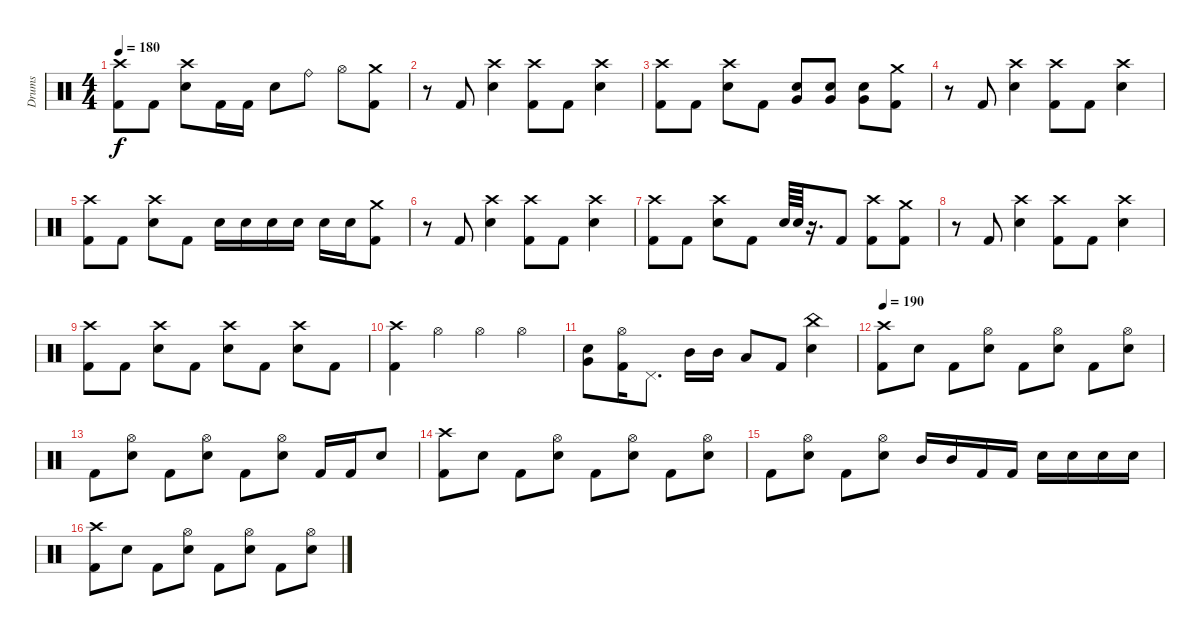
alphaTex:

\track ("Drums" "Drums") {instrument percussion}
\staff {score}
\articulation defaults
\ts (4 4)
\tempo 180
\clef neutral
\ks c
("Crash high (hit)" "Kick (hit) 2").8{dy f} "Kick (hit) 2".8 ("Crash high (hit)" "Electric Snare (hit)").8 "Kick (hit) 2".16 "Kick (hit) 2".16 "Electric Snare (hit)".8 "Ride (bell)".8 "Hi-Hat (open)".8 ("Crash medium (hit)" "Kick (hit) 2").8 |
r.8 "Kick (hit) 2".8 ("Crash high (hit)" "Electric Snare (hit)").4 ("Crash high (hit)" "Kick (hit) 2").8 "Kick (hit) 2".8 ("Crash high (hit)" "Electric Snare (hit)").4 |
("Crash high (hit)" "Kick (hit) 2").8 "Kick (hit) 2".8 ("Crash high (hit)" "Electric Snare (hit)").8 "Kick (hit) 2".8 ("Electric Snare (hit)" "Very Low Tom (hit)").8 ("Electric Snare (hit)" "Very Low Tom (hit)").8 ("Electric Snare (hit)" "Very Low Tom (hit)").8 ("Crash medium (hit)" "Kick (hit) 2").8 |
r.8 "Kick (hit) 2".8 ("Crash high (hit)" "Electric Snare (hit)").4 ("Crash high (hit)" "Kick (hit) 2").8 "Kick (hit) 2".8 ("Crash high (hit)" "Electric Snare (hit)").4 |
("Crash high (hit)" "Kick (hit) 2").8 "Kick (hit) 2".8 ("Crash high (hit)" "Electric Snare (hit)").8 "Kick (hit) 2".8 "Electric Snare (hit)".16 "Electric Snare (hit)".16 "Electric Snare (hit)".16 "Electric Snare (hit)".16 "Electric Snare (hit)".16 "Electric Snare (hit)".16 ("Crash medium (hit)" "Kick (hit) 2").8 |
r.8 "Kick (hit) 2".8 ("Crash high (hit)" "Electric Snare (hit)").4 ("Crash high (hit)" "Kick (hit) 2").8 "Kick (hit) 2".8 ("Crash high (hit)" "Electric Snare (hit)").4 |
("Crash high (hit)" "Kick (hit) 2").8 "Kick (hit) 2".8 ("Crash high (hit)" "Electric Snare (hit)").8 "Kick (hit) 2".8 "Electric Snare (hit)".64 "Electric Snare (hit)".64 r.16{d} "Kick (hit) 2".8 ("Crash high (hit)" "Kick (hit) 2").8 ("Crash medium (hit)" "Kick (hit) 2").8 |
r.8 "Kick (hit) 2".8 ("Crash high (hit)" "Electric Snare (hit)").4 ("Crash high (hit)" "Kick (hit) 2").8 "Kick (hit) 2".8 ("Crash high (hit)" "Electric Snare (hit)").4 |
("Crash high (hit)" "Kick (hit) 2").8 "Kick (hit) 2".8 ("Crash high (hit)" "Electric Snare (hit)").8 "Kick (hit) 2".8 ("Crash high (hit)" "Electric Snare (hit)").8 "Kick (hit) 2".8 ("Crash high (hit)" "Electric Snare (hit)").8 "Kick (hit) 2".8 |
("Crash high (hit)" "Kick (hit) 2").4 "Hi-Hat (open)".4 "Hi-Hat (open)".4 "Hi-Hat (open)".4 |
("Electric Snare (hit)" "Very Low Tom (hit)").8 ("Hi-Hat (open)" "Kick (hit) 2").16 "Pedal Hi-Hat (hit)".8{d} "Mid Tom (hit)".16 "Mid Tom (hit)".16 "Low Tom (hit)".8 "Kick (hit) 2".8 ("China (hit)" "Electric Snare (hit)").4 |
\tempo 190
("Crash high (hit)" "Kick (hit) 2").8 "Electric Snare (hit)".8 "Kick (hit) 2".8 ("Hi-Hat (open)" "Electric Snare (hit)").8 "Kick (hit) 2".8 ("Hi-Hat (open)" "Electric Snare (hit)").8 "Kick (hit) 2".8 ("Hi-Hat (open)" "Electric Snare (hit)").8 |
"Kick (hit) 2".8 ("Hi-Hat (open)" "Electric Snare (hit)").8 "Kick (hit) 2".8 ("Hi-Hat (open)" "Electric Snare (hit)").8 "Kick (hit) 2".8 ("Hi-Hat (open)" "Electric Snare (hit)").8 "Kick (hit) 2".16 "Kick (hit) 2".16 "Electric Snare (hit)".8 |
("Crash high (hit)" "Kick (hit) 2").8 "Electric Snare (hit)".8 "Kick (hit) 2".8 ("Hi-Hat (open)" "Electric Snare (hit)").8 "Kick (hit) 2".8 ("Hi-Hat (open)" "Electric Snare (hit)").8 "Kick (hit) 2".8 ("Hi-Hat (open)" "Electric Snare (hit)").8 |
"Kick (hit) 2".8 ("Hi-Hat (open)" "Electric Snare (hit)").8 "Kick (hit) 2".8 ("Hi-Hat (open)" "Electric Snare (hit)").8 "Mid Tom (hit)".16 "Mid Tom (hit)".16 "Kick (hit) 2".16 "Kick (hit) 2".16 "Electric Snare (hit)".16 "Electric Snare (hit)".16 "Electric Snare (hit)".16 "Electric Snare (hit)".16 |
("Crash high (hit)" "Kick (hit) 2").8 "Electric Snare (hit)".8 "Kick (hit) 2".8 ("Hi-Hat (open)" "Electric Snare (hit)").8 "Kick (hit) 2".8 ("Hi-Hat (open)" "Electric Snare (hit)").8 "Kick (hit) 2".8 ("Hi-Hat (open)" "Electric Snare (hit)").8
